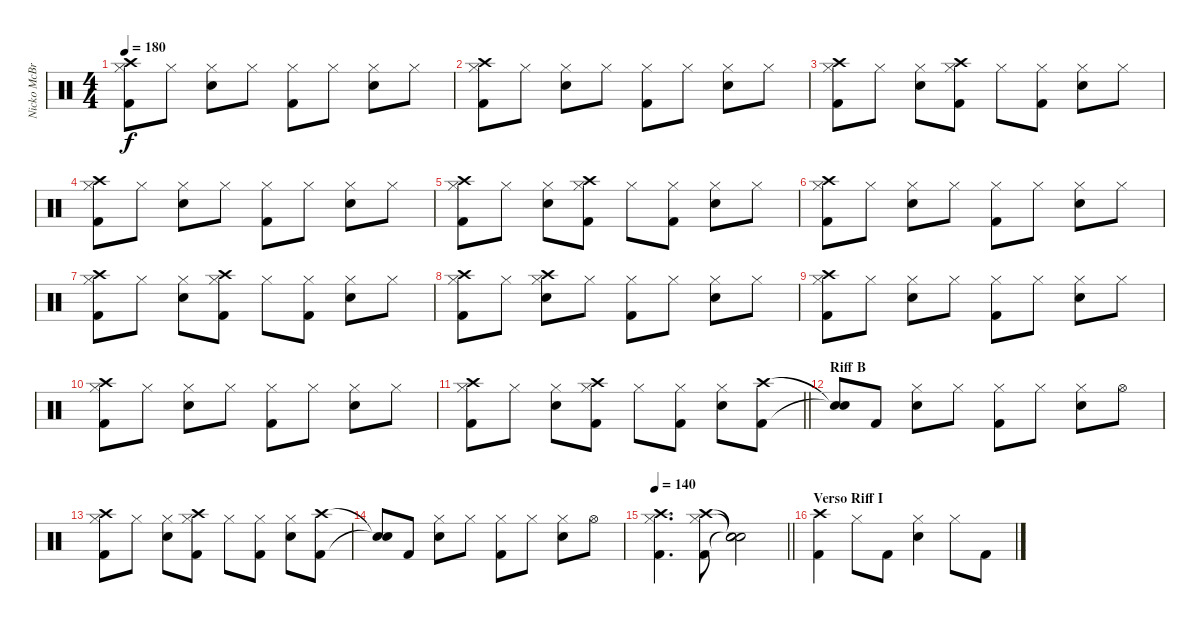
\track ("Nicko McBrain" "Nicko McBr") {instrument percussion}
\staff {score}
\articulation defaults
\ts (4 4)
\tempo 180
\clef neutral
\ks c
("Hi-Hat (closed)" "Kick (hit) 2" "Crash high (hit)").8{dy f} "Hi-Hat (closed)".8 ("Hi-Hat (closed)" "Snare (hit) 2").8 "Hi-Hat (closed)".8 ("Hi-Hat (closed)" "Kick (hit) 2").8 "Hi-Hat (closed)".8 ("Hi-Hat (closed)" "Snare (hit) 2").8 "Hi-Hat (closed)".8 |
("Hi-Hat (closed)" "Kick (hit) 2" "Crash high (hit)").8 "Hi-Hat (closed)".8 ("Hi-Hat (closed)" "Snare (hit) 2").8 "Hi-Hat (closed)".8 ("Hi-Hat (closed)" "Kick (hit) 2").8 "Hi-Hat (closed)".8 ("Hi-Hat (closed)" "Snare (hit) 2").8 "Hi-Hat (closed)".8 |
("Hi-Hat (closed)" "Kick (hit) 2" "Crash high (hit)").8 "Hi-Hat (closed)".8 ("Hi-Hat (closed)" "Snare (hit) 2").8 ("Hi-Hat (closed)" "Kick (hit) 2" "Crash high (hit)").8 "Hi-Hat (closed)".8 ("Hi-Hat (closed)" "Kick (hit) 2").8 ("Hi-Hat (closed)" "Snare (hit) 2").8 "Hi-Hat (closed)".8 |
("Hi-Hat (closed)" "Kick (hit) 2" "Crash high (hit)").8 "Hi-Hat (closed)".8 ("Hi-Hat (closed)" "Snare (hit) 2").8 "Hi-Hat (closed)".8 ("Hi-Hat (closed)" "Kick (hit) 2").8 "Hi-Hat (closed)".8 ("Hi-Hat (closed)" "Snare (hit) 2").8 "Hi-Hat (closed)".8 |
("Hi-Hat (closed)" "Kick (hit) 2" "Crash high (hit)").8 "Hi-Hat (closed)".8 ("Hi-Hat (closed)" "Snare (hit) 2").8 ("Hi-Hat (closed)" "Kick (hit) 2" "Crash high (hit)").8 "Hi-Hat (closed)".8 ("Hi-Hat (closed)" "Kick (hit) 2").8 ("Hi-Hat (closed)" "Snare (hit) 2").8 "Hi-Hat (closed)".8 |
("Hi-Hat (closed)" "Kick (hit) 2" "Crash high (hit)").8 "Hi-Hat (closed)".8 ("Hi-Hat (closed)" "Snare (hit) 2").8 "Hi-Hat (closed)".8 ("Hi-Hat (closed)" "Kick (hit) 2").8 "Hi-Hat (closed)".8 ("Hi-Hat (closed)" "Snare (hit) 2").8 "Hi-Hat (closed)".8 |
("Hi-Hat (closed)" "Kick (hit) 2" "Crash high (hit)").8 "Hi-Hat (closed)".8 ("Hi-Hat (closed)" "Snare (hit) 2").8 ("Hi-Hat (closed)" "Kick (hit) 2" "Crash high (hit)").8 "Hi-Hat (closed)".8 ("Hi-Hat (closed)" "Kick (hit) 2").8 ("Hi-Hat (closed)" "Snare (hit) 2").8 "Hi-Hat (closed)".8 |
("Hi-Hat (closed)" "Kick (hit) 2" "Crash high (hit)").8 "Hi-Hat (closed)".8 ("Hi-Hat (closed)" "Snare (hit) 2" "Crash high (hit)").8 "Hi-Hat (closed)".8 ("Hi-Hat (closed)" "Kick (hit) 2").8 "Hi-Hat (closed)".8 ("Hi-Hat (closed)" "Snare (hit) 2").8 "Hi-Hat (closed)".8 |
("Hi-Hat (closed)" "Kick (hit) 2" "Crash high (hit)").8 "Hi-Hat (closed)".8 ("Hi-Hat (closed)" "Snare (hit) 2").8 "Hi-Hat (closed)".8 ("Hi-Hat (closed)" "Kick (hit) 2").8 "Hi-Hat (closed)".8 ("Hi-Hat (closed)" "Snare (hit) 2").8 "Hi-Hat (closed)".8 |
("Hi-Hat (closed)" "Kick (hit) 2" "Crash high (hit)").8 "Hi-Hat (closed)".8 ("Hi-Hat (closed)" "Snare (hit) 2").8 "Hi-Hat (closed)".8 ("Hi-Hat (closed)" "Kick (hit) 2").8 "Hi-Hat (closed)".8 ("Hi-Hat (closed)" "Snare (hit) 2").8 "Hi-Hat (closed)".8 |
\barLineRight lightlight
("Kick (hit) 2" "Hi-Hat (closed)" "Crash high (hit)").8 "Hi-Hat (closed)".8 ("Snare (hit) 2" "Hi-Hat (closed)").8 ("Kick (hit) 2" "Hi-Hat (closed)" "Crash high (hit)").8 "Hi-Hat (closed)".8 ("Kick (hit) 2" "Hi-Hat (closed)").8 ("Snare (hit) 2" "Hi-Hat (closed)").8 ("Kick (hit) 2" "Crash high (hit)").8 |
\section ("" "Riff B")
("Snare (hit)"{t} "Snare (hit)"{t}).8 "Kick (hit) 2".8 ("Snare (hit) 2" "Hi-Hat (closed)").8 "Hi-Hat (closed)".8 ("Kick (hit) 2" "Hi-Hat (closed)").8 "Hi-Hat (closed)".8 ("Snare (hit) 2" "Hi-Hat (closed)").8 "Hi-Hat (open)".8 |
("Kick (hit) 2" "Hi-Hat (closed)" "Crash high (hit)").8 "Hi-Hat (closed)".8 ("Snare (hit) 2" "Hi-Hat (closed)").8 ("Kick (hit) 2" "Hi-Hat (closed)" "Crash high (hit)").8 "Hi-Hat (closed)".8 ("Kick (hit) 2" "Hi-Hat (closed)").8 ("Snare (hit) 2" "Hi-Hat (closed)").8 ("Kick (hit) 2" "Crash high (hit)").8 |
("Snare (hit)"{t} "Snare (hit)"{t}).8 "Kick (hit) 2".8 ("Snare (hit) 2" "Hi-Hat (closed)").8 "Hi-Hat (closed)".8 ("Kick (hit) 2" "Hi-Hat (closed)").8 "Hi-Hat (closed)".8 ("Snare (hit) 2" "Hi-Hat (closed)").8 "Hi-Hat (open)".8 |
\tempo 140
\barLineRight lightlight
("Kick (hit) 2" "Hi-Hat (closed)" "Crash high (hit)").4{d} ("Kick (hit) 2" "Hi-Hat (closed)" "Crash high (hit)").8 ("Snare (hit)"{t} "Snare (hit)"{t} "Snare (hit)"{t}).2 |
\section ("" "Verso Riff I")
("Kick (hit) 2" "Crash high (hit)").4 "Hi-Hat (closed)".8 "Kick (hit) 2".8 ("Snare (hit) 2" "Hi-Hat (closed)").4 "Hi-Hat (closed)".8 "Kick (hit) 2".8
